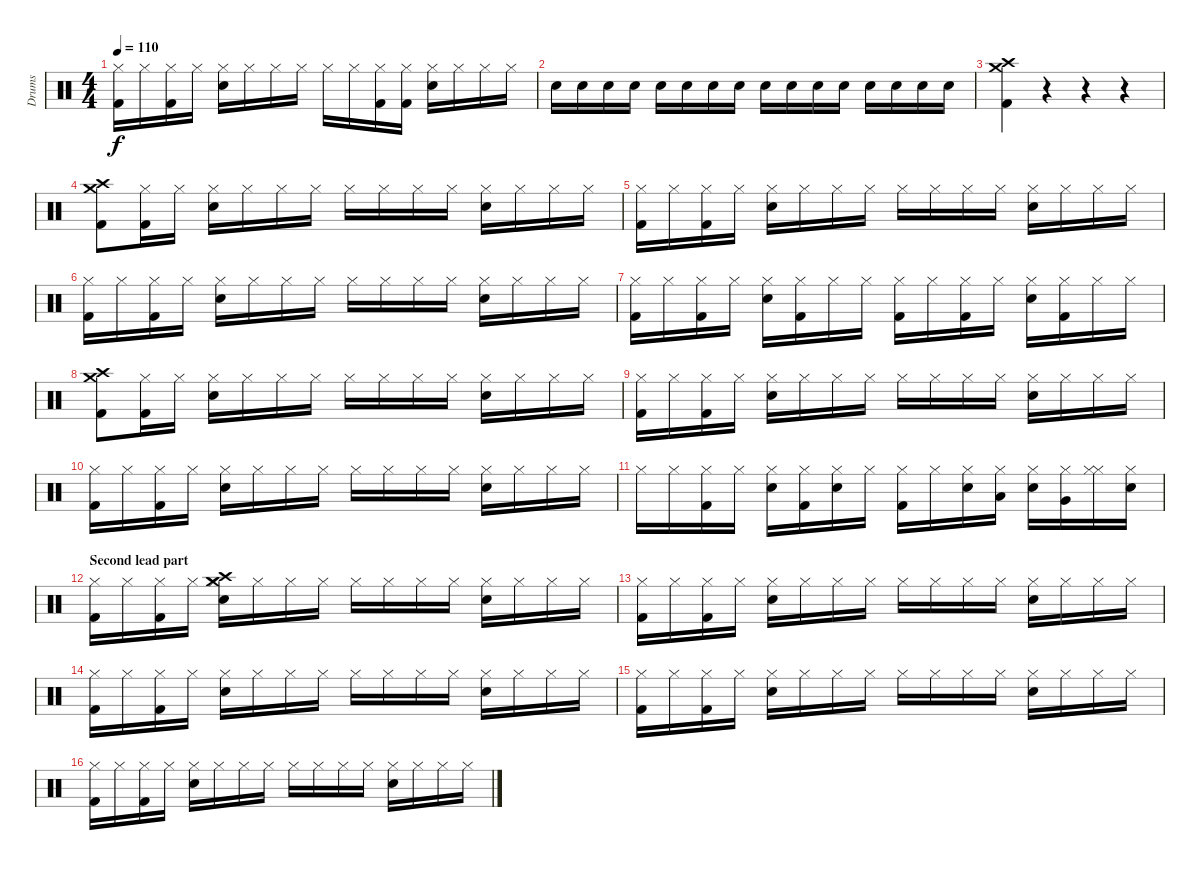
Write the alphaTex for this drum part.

\track ("Drums" "Drums") {instrument percussion}
\staff {score}
\articulation defaults
\ts (4 4)
\tempo 110
\clef neutral
\ks c
("Hi-Hat (closed)" "Kick (hit) 2").16{dy f} "Hi-Hat (closed)".16 ("Hi-Hat (closed)" "Kick (hit) 2").16 "Hi-Hat (closed)".16 ("Hi-Hat (closed)" "Snare (hit) 2").16 "Hi-Hat (closed)".16 "Hi-Hat (closed)".16 "Hi-Hat (closed)".16 "Hi-Hat (closed)".16 "Hi-Hat (closed)".16 ("Hi-Hat (closed)" "Kick (hit) 2").16 ("Hi-Hat (closed)" "Kick (hit) 2").16 ("Hi-Hat (closed)" "Snare (hit) 2").16 "Hi-Hat (closed)".16 "Hi-Hat (closed)".16 "Hi-Hat (closed)".16 |
"Snare (hit) 2".16 "Snare (hit) 2".16 "Snare (hit) 2".16 "Snare (hit) 2".16 "Snare (hit) 2".16 "Snare (hit) 2".16 "Snare (hit) 2".16 "Snare (hit) 2".16 "Snare (hit) 2".16 "Snare (hit) 2".16 "Snare (hit) 2".16 "Snare (hit) 2".16 "Snare (hit) 2".16 "Snare (hit) 2".16 "Snare (hit) 2".16 "Snare (hit) 2".16 |
("Crash medium (hit)" "Crash high (hit)" "Kick (hit) 2").4 r.4 r.4 r.4 |
("Crash high (hit)" "Crash medium (hit)" "Kick (hit) 2").8 ("Hi-Hat (closed)" "Kick (hit) 2").16 "Hi-Hat (closed)".16 ("Hi-Hat (closed)" "Snare (hit) 2").16 "Hi-Hat (closed)".16 "Hi-Hat (closed)".16 "Hi-Hat (closed)".16 "Hi-Hat (closed)".16 "Hi-Hat (closed)".16 "Hi-Hat (closed)".16 "Hi-Hat (closed)".16 ("Hi-Hat (closed)" "Snare (hit) 2").16 "Hi-Hat (closed)".16 "Hi-Hat (closed)".16 "Hi-Hat (closed)".16 |
("Hi-Hat (closed)" "Kick (hit) 2").16 "Hi-Hat (closed)".16 ("Hi-Hat (closed)" "Kick (hit) 2").16 "Hi-Hat (closed)".16 ("Hi-Hat (closed)" "Snare (hit) 2").16 "Hi-Hat (closed)".16 "Hi-Hat (closed)".16 "Hi-Hat (closed)".16 "Hi-Hat (closed)".16 "Hi-Hat (closed)".16 "Hi-Hat (closed)".16 "Hi-Hat (closed)".16 ("Hi-Hat (closed)" "Snare (hit) 2").16 "Hi-Hat (closed)".16 "Hi-Hat (closed)".16 "Hi-Hat (closed)".16 |
("Hi-Hat (closed)" "Kick (hit) 2").16 "Hi-Hat (closed)".16 ("Hi-Hat (closed)" "Kick (hit) 2").16 "Hi-Hat (closed)".16 ("Hi-Hat (closed)" "Snare (hit) 2").16 "Hi-Hat (closed)".16 "Hi-Hat (closed)".16 "Hi-Hat (closed)".16 "Hi-Hat (closed)".16 "Hi-Hat (closed)".16 "Hi-Hat (closed)".16 "Hi-Hat (closed)".16 ("Hi-Hat (closed)" "Snare (hit) 2").16 "Hi-Hat (closed)".16 "Hi-Hat (closed)".16 "Hi-Hat (closed)".16 |
("Hi-Hat (closed)" "Kick (hit) 2").16 "Hi-Hat (closed)".16 ("Hi-Hat (closed)" "Kick (hit) 2").16 "Hi-Hat (closed)".16 ("Hi-Hat (closed)" "Snare (hit) 2").16 ("Hi-Hat (closed)" "Kick (hit) 2").16 "Hi-Hat (closed)".16 "Hi-Hat (closed)".16 ("Hi-Hat (closed)" "Kick (hit) 2").16 "Hi-Hat (closed)".16 ("Hi-Hat (closed)" "Kick (hit) 2").16 "Hi-Hat (closed)".16 ("Hi-Hat (closed)" "Snare (hit) 2").16 ("Hi-Hat (closed)" "Kick (hit) 2").16 "Hi-Hat (closed)".16 "Hi-Hat (closed)".16 |
("Crash high (hit)" "Crash medium (hit)" "Kick (hit) 2").8 ("Hi-Hat (closed)" "Kick (hit) 2").16 "Hi-Hat (closed)".16 ("Hi-Hat (closed)" "Snare (hit) 2").16 "Hi-Hat (closed)".16 "Hi-Hat (closed)".16 "Hi-Hat (closed)".16 "Hi-Hat (closed)".16 "Hi-Hat (closed)".16 "Hi-Hat (closed)".16 "Hi-Hat (closed)".16 ("Hi-Hat (closed)" "Snare (hit) 2").16 "Hi-Hat (closed)".16 "Hi-Hat (closed)".16 "Hi-Hat (closed)".16 |
("Hi-Hat (closed)" "Kick (hit) 2").16 "Hi-Hat (closed)".16 ("Hi-Hat (closed)" "Kick (hit) 2").16 "Hi-Hat (closed)".16 ("Hi-Hat (closed)" "Snare (hit) 2").16 "Hi-Hat (closed)".16 "Hi-Hat (closed)".16 "Hi-Hat (closed)".16 "Hi-Hat (closed)".16 "Hi-Hat (closed)".16 "Hi-Hat (closed)".16 "Hi-Hat (closed)".16 ("Hi-Hat (closed)" "Snare (hit) 2").16 "Hi-Hat (closed)".16 "Hi-Hat (closed)".16 "Hi-Hat (closed)".16 |
("Hi-Hat (closed)" "Kick (hit) 2").16 "Hi-Hat (closed)".16 ("Hi-Hat (closed)" "Kick (hit) 2").16 "Hi-Hat (closed)".16 ("Hi-Hat (closed)" "Snare (hit) 2").16 "Hi-Hat (closed)".16 "Hi-Hat (closed)".16 "Hi-Hat (closed)".16 "Hi-Hat (closed)".16 "Hi-Hat (closed)".16 "Hi-Hat (closed)".16 "Hi-Hat (closed)".16 ("Hi-Hat (closed)" "Snare (hit) 2").16 "Hi-Hat (closed)".16 "Hi-Hat (closed)".16 "Hi-Hat (closed)".16 |
"Hi-Hat (closed)".16 "Hi-Hat (closed)".16 ("Hi-Hat (closed)" "Kick (hit) 2").16 "Hi-Hat (closed)".16 ("Hi-Hat (closed)" "Snare (hit) 2").16 ("Hi-Hat (closed)" "Kick (hit) 2").16 ("Hi-Hat (closed)" "Snare (hit) 2").16 "Hi-Hat (closed)".16 ("Hi-Hat (closed)" "Kick (hit) 2").16 "Hi-Hat (closed)".16 ("Hi-Hat (closed)" "Snare (hit) 2").16 ("Hi-Hat (closed)" "Low Tom (hit)").16 ("Hi-Hat (closed)" "Snare (hit) 2").16 ("Hi-Hat (closed)" "Very Low Tom (hit)").16 ("Hi-Hat (closed)" "Hi-Hat (closed)").16 ("Hi-Hat (closed)" "Snare (hit) 2").16 |
\section ("" "Second lead part")
("Hi-Hat (closed)" "Kick (hit) 2").16 "Hi-Hat (closed)".16 ("Hi-Hat (closed)" "Kick (hit) 2").16 "Hi-Hat (closed)".16 ("Hi-Hat (closed)" "Crash medium (hit)" "Crash high (hit)" "Snare (hit) 2").16 "Hi-Hat (closed)".16 "Hi-Hat (closed)".16 "Hi-Hat (closed)".16 "Hi-Hat (closed)".16 "Hi-Hat (closed)".16 "Hi-Hat (closed)".16 "Hi-Hat (closed)".16 ("Hi-Hat (closed)" "Snare (hit) 2").16 "Hi-Hat (closed)".16 "Hi-Hat (closed)".16 "Hi-Hat (closed)".16 |
("Hi-Hat (closed)" "Kick (hit) 2").16 "Hi-Hat (closed)".16 ("Hi-Hat (closed)" "Kick (hit) 2").16 "Hi-Hat (closed)".16 ("Hi-Hat (closed)" "Snare (hit) 2").16 "Hi-Hat (closed)".16 "Hi-Hat (closed)".16 "Hi-Hat (closed)".16 "Hi-Hat (closed)".16 "Hi-Hat (closed)".16 "Hi-Hat (closed)".16 "Hi-Hat (closed)".16 ("Hi-Hat (closed)" "Snare (hit) 2").16 "Hi-Hat (closed)".16 "Hi-Hat (closed)".16 "Hi-Hat (closed)".16 |
("Hi-Hat (closed)" "Kick (hit) 2").16 "Hi-Hat (closed)".16 ("Hi-Hat (closed)" "Kick (hit) 2").16 "Hi-Hat (closed)".16 ("Hi-Hat (closed)" "Snare (hit) 2").16 "Hi-Hat (closed)".16 "Hi-Hat (closed)".16 "Hi-Hat (closed)".16 "Hi-Hat (closed)".16 "Hi-Hat (closed)".16 "Hi-Hat (closed)".16 "Hi-Hat (closed)".16 ("Hi-Hat (closed)" "Snare (hit) 2").16 "Hi-Hat (closed)".16 "Hi-Hat (closed)".16 "Hi-Hat (closed)".16 |
("Hi-Hat (closed)" "Kick (hit) 2").16 "Hi-Hat (closed)".16 ("Hi-Hat (closed)" "Kick (hit) 2").16 "Hi-Hat (closed)".16 ("Hi-Hat (closed)" "Snare (hit) 2").16 "Hi-Hat (closed)".16 "Hi-Hat (closed)".16 "Hi-Hat (closed)".16 "Hi-Hat (closed)".16 "Hi-Hat (closed)".16 "Hi-Hat (closed)".16 "Hi-Hat (closed)".16 ("Hi-Hat (closed)" "Snare (hit) 2").16 "Hi-Hat (closed)".16 "Hi-Hat (closed)".16 "Hi-Hat (closed)".16 |
("Hi-Hat (closed)" "Kick (hit) 2").16 "Hi-Hat (closed)".16 ("Hi-Hat (closed)" "Kick (hit) 2").16 "Hi-Hat (closed)".16 ("Hi-Hat (closed)" "Snare (hit) 2").16 "Hi-Hat (closed)".16 "Hi-Hat (closed)".16 "Hi-Hat (closed)".16 "Hi-Hat (closed)".16 "Hi-Hat (closed)".16 "Hi-Hat (closed)".16 "Hi-Hat (closed)".16 ("Hi-Hat (closed)" "Snare (hit) 2").16 "Hi-Hat (closed)".16 "Hi-Hat (closed)".16 "Hi-Hat (closed)".16
